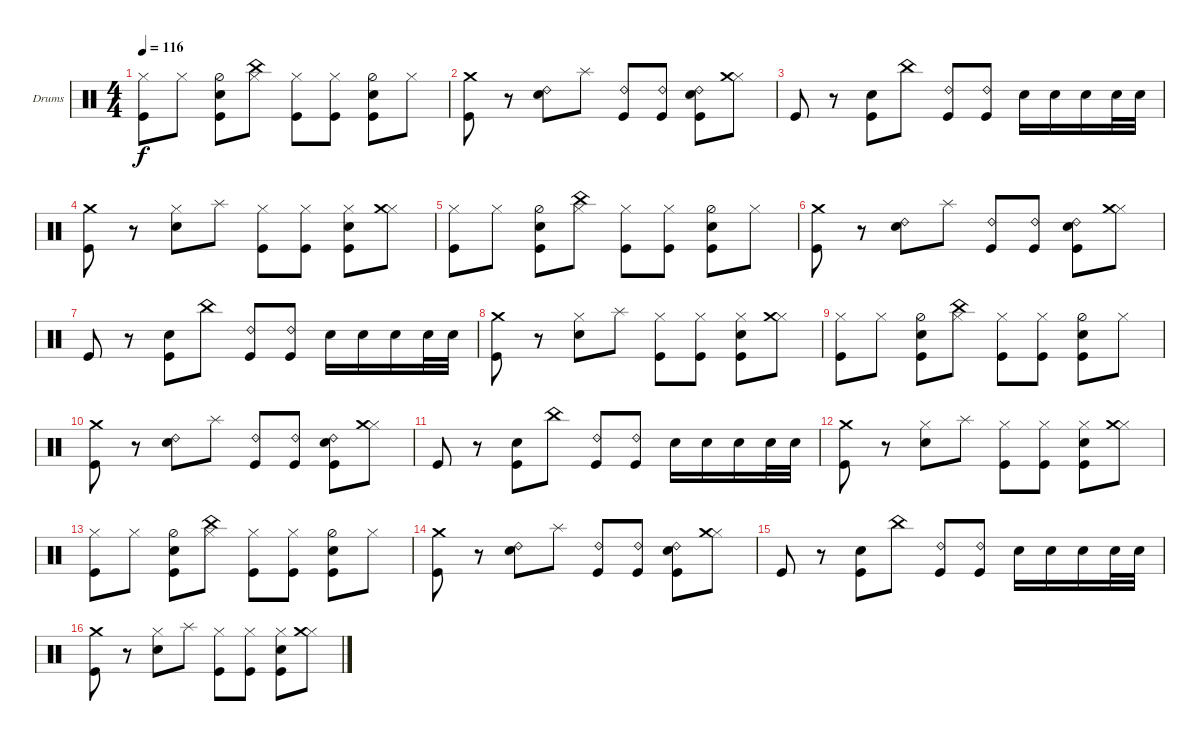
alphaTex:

\bracketExtendMode groupsimilarinstruments
\firstSystemTrackNameOrientation horizontal
\otherSystemsTrackNameOrientation horizontal
\track ("Mick Brown" "Drums") {instrument percussion}
\staff {score}
\articulation defaults
\ts (4 4)
\tempo 116
\clef neutral
\ks c
("Kick (hit)" "Hi-Hat (closed)").8{dy f} "Hi-Hat (closed)".8 ("Snare (hit) 2" "Kick (hit)" "Hi-Hat (half)").8 ("Hi-Hat (closed)" "China (hit)").8 ("Kick (hit)" "Hi-Hat (closed)").8 ("Kick (hit)" "Hi-Hat (closed)").8 ("Snare (hit) 2" "Kick (hit)" "Hi-Hat (half)").8 "Hi-Hat (closed)".8 |
("Kick (hit)" "Crash medium (hit)").8 r.8 ("Snare (hit) 2" "Ride (bell) 2").8 "Splash (hit)".8 ("Kick (hit)" "Ride (bell) 2").8 ("Kick (hit)" "Ride (bell) 2").8 ("Snare (hit) 2" "Kick (hit)" "Ride (bell) 2").8 ("Hi-Hat (closed)" "Crash medium (hit)").8 |
"Kick (hit)".8 r.8 ("Snare (hit) 2" "Kick (hit)").8 "China (hit)".8 ("Kick (hit)" "Ride (bell) 2").8 ("Kick (hit)" "Ride (bell) 2").8 "Snare (hit) 2".16 "Snare (hit) 2".16 "Snare (hit) 2".16 "Snare (hit) 2".32 "Snare (hit) 2".32 |
("Kick (hit)" "Crash medium (hit)").8 r.8 ("Snare (hit) 2" "Hi-Hat (closed)").8 "Splash (hit)".8 ("Kick (hit)" "Hi-Hat (closed)").8 ("Kick (hit)" "Hi-Hat (closed)").8 ("Snare (hit) 2" "Kick (hit)" "Hi-Hat (closed)").8 ("Hi-Hat (closed)" "Crash medium (hit)").8 |
("Kick (hit)" "Hi-Hat (closed)").8 "Hi-Hat (closed)".8 ("Snare (hit) 2" "Kick (hit)" "Hi-Hat (half)").8 ("Hi-Hat (closed)" "China (hit)").8 ("Kick (hit)" "Hi-Hat (closed)").8 ("Kick (hit)" "Hi-Hat (closed)").8 ("Snare (hit) 2" "Kick (hit)" "Hi-Hat (half)").8 "Hi-Hat (closed)".8 |
("Kick (hit)" "Crash medium (hit)").8 r.8 ("Snare (hit) 2" "Ride (bell) 2").8 "Splash (hit)".8 ("Kick (hit)" "Ride (bell) 2").8 ("Kick (hit)" "Ride (bell) 2").8 ("Snare (hit) 2" "Kick (hit)" "Ride (bell) 2").8 ("Hi-Hat (closed)" "Crash medium (hit)").8 |
"Kick (hit)".8 r.8 ("Snare (hit) 2" "Kick (hit)").8 "China (hit)".8 ("Kick (hit)" "Ride (bell) 2").8 ("Kick (hit)" "Ride (bell) 2").8 "Snare (hit) 2".16 "Snare (hit) 2".16 "Snare (hit) 2".16 "Snare (hit) 2".32 "Snare (hit) 2".32 |
("Kick (hit)" "Crash medium (hit)").8 r.8 ("Snare (hit) 2" "Hi-Hat (closed)").8 "Splash (hit)".8 ("Kick (hit)" "Hi-Hat (closed)").8 ("Kick (hit)" "Hi-Hat (closed)").8 ("Snare (hit) 2" "Kick (hit)" "Hi-Hat (closed)").8 ("Hi-Hat (closed)" "Crash medium (hit)").8 |
("Kick (hit)" "Hi-Hat (closed)").8 "Hi-Hat (closed)".8 ("Snare (hit) 2" "Kick (hit)" "Hi-Hat (half)").8 ("Hi-Hat (closed)" "China (hit)").8 ("Kick (hit)" "Hi-Hat (closed)").8 ("Kick (hit)" "Hi-Hat (closed)").8 ("Snare (hit) 2" "Kick (hit)" "Hi-Hat (half)").8 "Hi-Hat (closed)".8 |
("Kick (hit)" "Crash medium (hit)").8 r.8 ("Snare (hit) 2" "Ride (bell) 2").8 "Splash (hit)".8 ("Kick (hit)" "Ride (bell) 2").8 ("Kick (hit)" "Ride (bell) 2").8 ("Snare (hit) 2" "Kick (hit)" "Ride (bell) 2").8 ("Hi-Hat (closed)" "Crash medium (hit)").8 |
"Kick (hit)".8 r.8 ("Snare (hit) 2" "Kick (hit)").8 "China (hit)".8 ("Kick (hit)" "Ride (bell) 2").8 ("Kick (hit)" "Ride (bell) 2").8 "Snare (hit) 2".16 "Snare (hit) 2".16 "Snare (hit) 2".16 "Snare (hit) 2".32 "Snare (hit) 2".32 |
("Kick (hit)" "Crash medium (hit)").8 r.8 ("Snare (hit) 2" "Hi-Hat (closed)").8 "Splash (hit)".8 ("Kick (hit)" "Hi-Hat (closed)").8 ("Kick (hit)" "Hi-Hat (closed)").8 ("Snare (hit) 2" "Kick (hit)" "Hi-Hat (closed)").8 ("Hi-Hat (closed)" "Crash medium (hit)").8 |
("Kick (hit)" "Hi-Hat (closed)").8 "Hi-Hat (closed)".8 ("Snare (hit) 2" "Kick (hit)" "Hi-Hat (half)").8 ("Hi-Hat (closed)" "China (hit)").8 ("Kick (hit)" "Hi-Hat (closed)").8 ("Kick (hit)" "Hi-Hat (closed)").8 ("Snare (hit) 2" "Kick (hit)" "Hi-Hat (half)").8 "Hi-Hat (closed)".8 |
("Kick (hit)" "Crash medium (hit)").8 r.8 ("Snare (hit) 2" "Ride (bell) 2").8 "Splash (hit)".8 ("Kick (hit)" "Ride (bell) 2").8 ("Kick (hit)" "Ride (bell) 2").8 ("Snare (hit) 2" "Kick (hit)" "Ride (bell) 2").8 ("Hi-Hat (closed)" "Crash medium (hit)").8 |
"Kick (hit)".8 r.8 ("Snare (hit) 2" "Kick (hit)").8 "China (hit)".8 ("Kick (hit)" "Ride (bell) 2").8 ("Kick (hit)" "Ride (bell) 2").8 "Snare (hit) 2".16 "Snare (hit) 2".16 "Snare (hit) 2".16 "Snare (hit) 2".32 "Snare (hit) 2".32 |
("Kick (hit)" "Crash medium (hit)").8 r.8 ("Snare (hit) 2" "Hi-Hat (closed)").8 "Splash (hit)".8 ("Kick (hit)" "Hi-Hat (closed)").8 ("Kick (hit)" "Hi-Hat (closed)").8 ("Snare (hit) 2" "Kick (hit)" "Hi-Hat (closed)").8 ("Hi-Hat (closed)" "Crash medium (hit)").8
